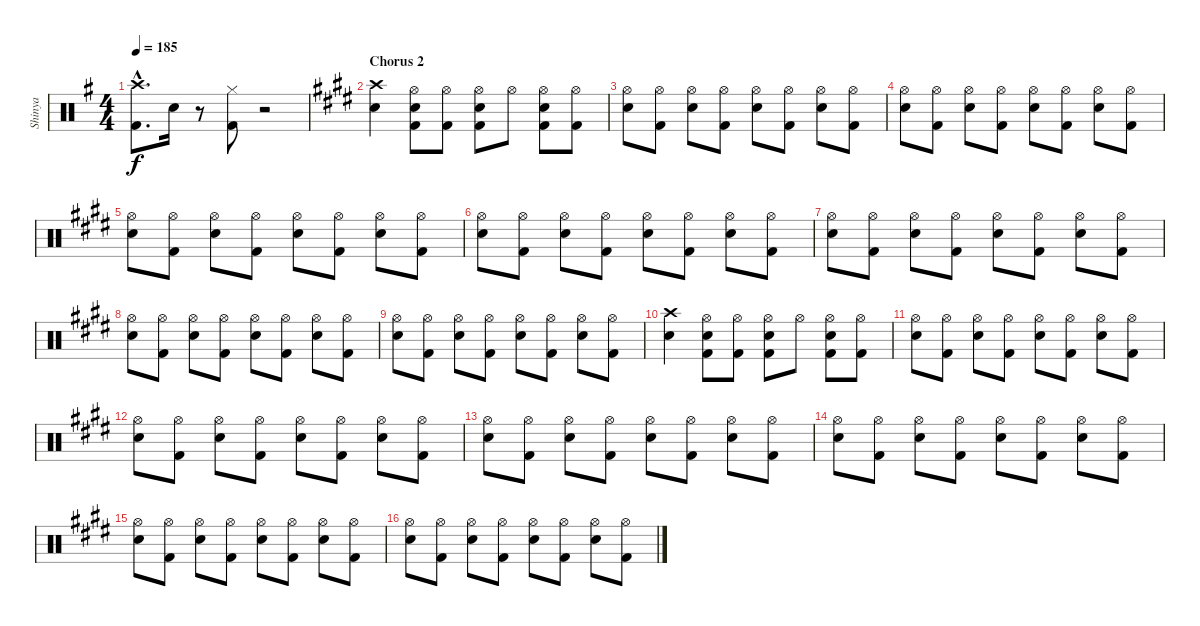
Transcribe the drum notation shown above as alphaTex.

\track ("Shinya" "Shinya") {instrument percussion}
\staff {score}
\articulation defaults
\ts (4 4)
\tempo 185
\clef neutral
\ks g
("Crash high (hit)"{hac} "Kick (hit) 2"{hac}).8{d dy f} "Snare (hit) 2".16 r.8 ("Hi-Hat (closed)" "Kick (hit) 2").8 r.2 |
\section ("" "Chorus 2")
\ks e
("Crash high (hit)" "Snare (hit) 2").4 ("Hi-Hat (open)" "Snare (hit) 2" "Kick (hit) 2").8 ("Hi-Hat (open)" "Kick (hit) 2").8 ("Hi-Hat (open)" "Snare (hit) 2" "Kick (hit) 2").8 "Hi-Hat (open)".8 ("Hi-Hat (open)" "Snare (hit) 2" "Kick (hit) 2").8 ("Hi-Hat (open)" "Kick (hit) 2").8 |
("Hi-Hat (open)" "Snare (hit) 2").8 ("Hi-Hat (open)" "Kick (hit) 2").8 ("Hi-Hat (open)" "Snare (hit) 2").8 ("Hi-Hat (open)" "Kick (hit) 2").8 ("Hi-Hat (open)" "Snare (hit) 2").8 ("Hi-Hat (open)" "Kick (hit) 2").8 ("Hi-Hat (open)" "Snare (hit) 2").8 ("Hi-Hat (open)" "Kick (hit) 2").8 |
("Hi-Hat (open)" "Snare (hit) 2").8 ("Hi-Hat (open)" "Kick (hit) 2").8 ("Hi-Hat (open)" "Snare (hit) 2").8 ("Hi-Hat (open)" "Kick (hit) 2").8 ("Hi-Hat (open)" "Snare (hit) 2").8 ("Hi-Hat (open)" "Kick (hit) 2").8 ("Hi-Hat (open)" "Snare (hit) 2").8 ("Hi-Hat (open)" "Kick (hit) 2").8 |
("Hi-Hat (open)" "Snare (hit) 2").8 ("Hi-Hat (open)" "Kick (hit) 2").8 ("Hi-Hat (open)" "Snare (hit) 2").8 ("Hi-Hat (open)" "Kick (hit) 2").8 ("Hi-Hat (open)" "Snare (hit) 2").8 ("Hi-Hat (open)" "Kick (hit) 2").8 ("Hi-Hat (open)" "Snare (hit) 2").8 ("Hi-Hat (open)" "Kick (hit) 2").8 |
("Hi-Hat (open)" "Snare (hit) 2").8 ("Hi-Hat (open)" "Kick (hit) 2").8 ("Hi-Hat (open)" "Snare (hit) 2").8 ("Hi-Hat (open)" "Kick (hit) 2").8 ("Hi-Hat (open)" "Snare (hit) 2").8 ("Hi-Hat (open)" "Kick (hit) 2").8 ("Hi-Hat (open)" "Snare (hit) 2").8 ("Hi-Hat (open)" "Kick (hit) 2").8 |
("Hi-Hat (open)" "Snare (hit) 2").8 ("Hi-Hat (open)" "Kick (hit) 2").8 ("Hi-Hat (open)" "Snare (hit) 2").8 ("Hi-Hat (open)" "Kick (hit) 2").8 ("Hi-Hat (open)" "Snare (hit) 2").8 ("Hi-Hat (open)" "Kick (hit) 2").8 ("Hi-Hat (open)" "Snare (hit) 2").8 ("Hi-Hat (open)" "Kick (hit) 2").8 |
("Hi-Hat (open)" "Snare (hit) 2").8 ("Hi-Hat (open)" "Kick (hit) 2").8 ("Hi-Hat (open)" "Snare (hit) 2").8 ("Hi-Hat (open)" "Kick (hit) 2").8 ("Hi-Hat (open)" "Snare (hit) 2").8 ("Hi-Hat (open)" "Kick (hit) 2").8 ("Hi-Hat (open)" "Snare (hit) 2").8 ("Hi-Hat (open)" "Kick (hit) 2").8 |
("Hi-Hat (open)" "Snare (hit) 2").8 ("Hi-Hat (open)" "Kick (hit) 2").8 ("Hi-Hat (open)" "Snare (hit) 2").8 ("Hi-Hat (open)" "Kick (hit) 2").8 ("Hi-Hat (open)" "Snare (hit) 2").8 ("Hi-Hat (open)" "Kick (hit) 2").8 ("Hi-Hat (open)" "Snare (hit) 2").8 ("Hi-Hat (open)" "Kick (hit) 2").8 |
("Crash high (hit)" "Snare (hit) 2").4 ("Hi-Hat (open)" "Snare (hit) 2" "Kick (hit) 2").8 ("Hi-Hat (open)" "Kick (hit) 2").8 ("Hi-Hat (open)" "Snare (hit) 2" "Kick (hit) 2").8 "Hi-Hat (open)".8 ("Hi-Hat (open)" "Snare (hit) 2" "Kick (hit) 2").8 ("Hi-Hat (open)" "Kick (hit) 2").8 |
("Hi-Hat (open)" "Snare (hit) 2").8 ("Hi-Hat (open)" "Kick (hit) 2").8 ("Hi-Hat (open)" "Snare (hit) 2").8 ("Hi-Hat (open)" "Kick (hit) 2").8 ("Hi-Hat (open)" "Snare (hit) 2").8 ("Hi-Hat (open)" "Kick (hit) 2").8 ("Hi-Hat (open)" "Snare (hit) 2").8 ("Hi-Hat (open)" "Kick (hit) 2").8 |
("Hi-Hat (open)" "Snare (hit) 2").8 ("Hi-Hat (open)" "Kick (hit) 2").8 ("Hi-Hat (open)" "Snare (hit) 2").8 ("Hi-Hat (open)" "Kick (hit) 2").8 ("Hi-Hat (open)" "Snare (hit) 2").8 ("Hi-Hat (open)" "Kick (hit) 2").8 ("Hi-Hat (open)" "Snare (hit) 2").8 ("Hi-Hat (open)" "Kick (hit) 2").8 |
("Hi-Hat (open)" "Snare (hit) 2").8 ("Hi-Hat (open)" "Kick (hit) 2").8 ("Hi-Hat (open)" "Snare (hit) 2").8 ("Hi-Hat (open)" "Kick (hit) 2").8 ("Hi-Hat (open)" "Snare (hit) 2").8 ("Hi-Hat (open)" "Kick (hit) 2").8 ("Hi-Hat (open)" "Snare (hit) 2").8 ("Hi-Hat (open)" "Kick (hit) 2").8 |
("Hi-Hat (open)" "Snare (hit) 2").8 ("Hi-Hat (open)" "Kick (hit) 2").8 ("Hi-Hat (open)" "Snare (hit) 2").8 ("Hi-Hat (open)" "Kick (hit) 2").8 ("Hi-Hat (open)" "Snare (hit) 2").8 ("Hi-Hat (open)" "Kick (hit) 2").8 ("Hi-Hat (open)" "Snare (hit) 2").8 ("Hi-Hat (open)" "Kick (hit) 2").8 |
("Hi-Hat (open)" "Snare (hit) 2").8 ("Hi-Hat (open)" "Kick (hit) 2").8 ("Hi-Hat (open)" "Snare (hit) 2").8 ("Hi-Hat (open)" "Kick (hit) 2").8 ("Hi-Hat (open)" "Snare (hit) 2").8 ("Hi-Hat (open)" "Kick (hit) 2").8 ("Hi-Hat (open)" "Snare (hit) 2").8 ("Hi-Hat (open)" "Kick (hit) 2").8 |
("Hi-Hat (open)" "Snare (hit) 2").8 ("Hi-Hat (open)" "Kick (hit) 2").8 ("Hi-Hat (open)" "Snare (hit) 2").8 ("Hi-Hat (open)" "Kick (hit) 2").8 ("Hi-Hat (open)" "Snare (hit) 2").8 ("Hi-Hat (open)" "Kick (hit) 2").8 ("Hi-Hat (open)" "Snare (hit) 2").8 ("Hi-Hat (open)" "Kick (hit) 2").8
